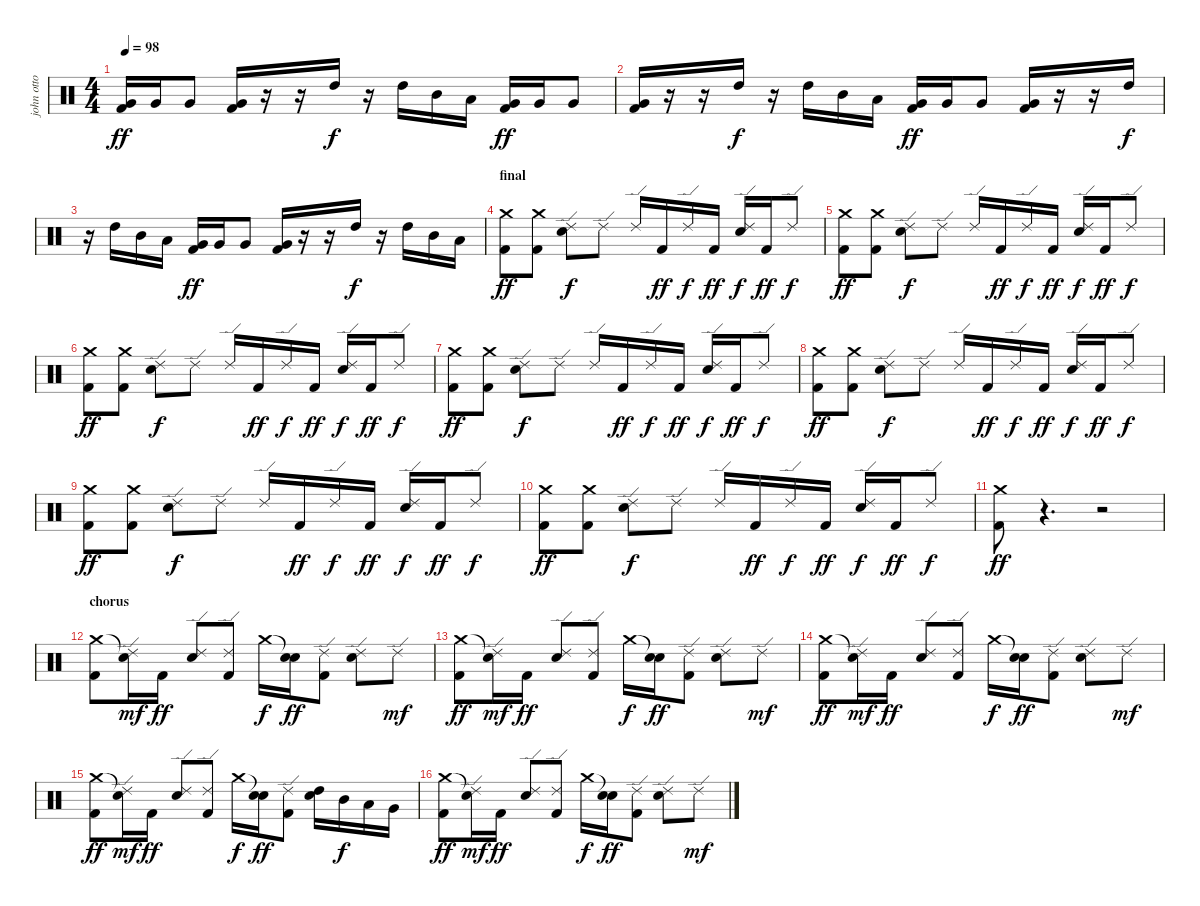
\track ("john otto" "john otto") {instrument percussion}
\staff {score}
\articulation defaults
\ts (4 4)
\tempo 98
\clef neutral
\ks c
("Very Low Tom (hit)" "Kick (hit) 2").16{dy ff volume 15} "Very Low Tom (hit)".16 "Very Low Tom (hit)".8 ("Very Low Tom (hit)" "Kick (hit) 2").16 r.16 r.16 "High Tom (hit)".16{dy f} r.16 "High Tom (hit)".16 "Mid Tom (hit)".16 "Low Tom (hit)".16 ("Very Low Tom (hit)" "Kick (hit) 2").16{dy ff} "Very Low Tom (hit)".16 "Very Low Tom (hit)".8 |
("Very Low Tom (hit)" "Kick (hit) 2").16 r.16 r.16 "High Tom (hit)".16{dy f} r.16 "High Tom (hit)".16 "Mid Tom (hit)".16 "Low Tom (hit)".16 ("Very Low Tom (hit)" "Kick (hit) 2").16{dy ff} "Very Low Tom (hit)".16 "Very Low Tom (hit)".8 ("Very Low Tom (hit)" "Kick (hit) 2").16 r.16 r.16 "High Tom (hit)".16{dy f} |
r.16 "High Tom (hit)".16 "Mid Tom (hit)".16 "Low Tom (hit)".16 ("Very Low Tom (hit)" "Kick (hit) 2").16{dy ff} "Very Low Tom (hit)".16 "Very Low Tom (hit)".8 ("Very Low Tom (hit)" "Kick (hit) 2").16 r.16 r.16 "High Tom (hit)".16{dy f} r.16 "High Tom (hit)".16 "Mid Tom (hit)".16 "Low Tom (hit)".16 |
\section ("" "final")
("Crash medium (hit)" "Kick (hit) 2").8{dy ff} ("Crash medium (hit)" "Kick (hit) 2").8 ("Ride (edge) 2" "Snare (hit) 2").8{dy f} "Ride (edge) 2".8 "Ride (edge) 2".16 "Kick (hit) 2".16{dy ff} "Ride (edge) 2".16{dy f} "Kick (hit) 2".16{dy ff} ("Ride (edge) 2" "Snare (hit) 2").16{dy f} "Kick (hit) 2".16{dy ff} "Ride (edge) 2".8{dy f} |
("Crash medium (hit)" "Kick (hit) 2").8{dy ff} ("Crash medium (hit)" "Kick (hit) 2").8 ("Ride (edge) 2" "Snare (hit) 2").8{dy f} "Ride (edge) 2".8 "Ride (edge) 2".16 "Kick (hit) 2".16{dy ff} "Ride (edge) 2".16{dy f} "Kick (hit) 2".16{dy ff} ("Ride (edge) 2" "Snare (hit) 2").16{dy f} "Kick (hit) 2".16{dy ff} "Ride (edge) 2".8{dy f} |
("Crash medium (hit)" "Kick (hit) 2").8{dy ff} ("Crash medium (hit)" "Kick (hit) 2").8 ("Ride (edge) 2" "Snare (hit) 2").8{dy f} "Ride (edge) 2".8 "Ride (edge) 2".16 "Kick (hit) 2".16{dy ff} "Ride (edge) 2".16{dy f} "Kick (hit) 2".16{dy ff} ("Ride (edge) 2" "Snare (hit) 2").16{dy f} "Kick (hit) 2".16{dy ff} "Ride (edge) 2".8{dy f} |
("Crash medium (hit)" "Kick (hit) 2").8{dy ff} ("Crash medium (hit)" "Kick (hit) 2").8 ("Ride (edge) 2" "Snare (hit) 2").8{dy f} "Ride (edge) 2".8 "Ride (edge) 2".16 "Kick (hit) 2".16{dy ff} "Ride (edge) 2".16{dy f} "Kick (hit) 2".16{dy ff} ("Ride (edge) 2" "Snare (hit) 2").16{dy f} "Kick (hit) 2".16{dy ff} "Ride (edge) 2".8{dy f} |
("Crash medium (hit)" "Kick (hit) 2").8{dy ff} ("Crash medium (hit)" "Kick (hit) 2").8 ("Ride (edge) 2" "Snare (hit) 2").8{dy f} "Ride (edge) 2".8 "Ride (edge) 2".16 "Kick (hit) 2".16{dy ff} "Ride (edge) 2".16{dy f} "Kick (hit) 2".16{dy ff} ("Ride (edge) 2" "Snare (hit) 2").16{dy f} "Kick (hit) 2".16{dy ff} "Ride (edge) 2".8{dy f} |
("Crash medium (hit)" "Kick (hit) 2").8{dy ff} ("Crash medium (hit)" "Kick (hit) 2").8 ("Ride (edge) 2" "Snare (hit) 2").8{dy f} "Ride (edge) 2".8 "Ride (edge) 2".16 "Kick (hit) 2".16{dy ff} "Ride (edge) 2".16{dy f} "Kick (hit) 2".16{dy ff} ("Ride (edge) 2" "Snare (hit) 2").16{dy f} "Kick (hit) 2".16{dy ff} "Ride (edge) 2".8{dy f} |
("Crash medium (hit)" "Kick (hit) 2").8{dy ff} ("Crash medium (hit)" "Kick (hit) 2").8 ("Ride (edge) 2" "Snare (hit) 2").8{dy f} "Ride (edge) 2".8 "Ride (edge) 2".16 "Kick (hit) 2".16{dy ff} "Ride (edge) 2".16{dy f} "Kick (hit) 2".16{dy ff} ("Ride (edge) 2" "Snare (hit) 2").16{dy f} "Kick (hit) 2".16{dy ff} "Ride (edge) 2".8{dy f} |
("Crash medium (hit)" "Kick (hit) 2").8{dy ff} r.4{d} r.2 |
\section ("" "chorus")
("Crash medium (hit)" "Kick (hit) 2").8 ("Snare (hit)"{t} "Ride (edge) 2").16{dy mf} "Kick (hit) 2".16{dy ff} ("Ride (edge) 2" "Snare (hit) 2").8 ("Ride (edge) 2" "Kick (hit) 2").8 "Crash medium (hit)".16{dy f} ("Snare (hit)"{t} "Snare (hit) 2").16{dy ff} ("Ride (edge) 2" "Kick (hit) 2").8 ("Ride (edge) 2" "Snare (hit) 2").8 "Ride (edge) 2".8{dy mf} |
("Crash medium (hit)" "Kick (hit) 2").8{dy ff} ("Snare (hit)"{t} "Ride (edge) 2").16{dy mf} "Kick (hit) 2".16{dy ff} ("Ride (edge) 2" "Snare (hit) 2").8 ("Ride (edge) 2" "Kick (hit) 2").8 "Crash medium (hit)".16{dy f} ("Snare (hit)"{t} "Snare (hit) 2").16{dy ff} ("Ride (edge) 2" "Kick (hit) 2").8 ("Ride (edge) 2" "Snare (hit) 2").8 "Ride (edge) 2".8{dy mf} |
("Crash medium (hit)" "Kick (hit) 2").8{dy ff} ("Snare (hit)"{t} "Ride (edge) 2").16{dy mf} "Kick (hit) 2".16{dy ff} ("Ride (edge) 2" "Snare (hit) 2").8 ("Ride (edge) 2" "Kick (hit) 2").8 "Crash medium (hit)".16{dy f} ("Snare (hit)"{t} "Snare (hit) 2").16{dy ff} ("Ride (edge) 2" "Kick (hit) 2").8 ("Ride (edge) 2" "Snare (hit) 2").8 "Ride (edge) 2".8{dy mf} |
("Crash medium (hit)" "Kick (hit) 2").8{dy ff} ("Snare (hit)"{t} "Ride (edge) 2").16{dy mf} "Kick (hit) 2".16{dy ff} ("Ride (edge) 2" "Snare (hit) 2").8 ("Ride (edge) 2" "Kick (hit) 2").8 "Crash medium (hit)".16{dy f} ("Snare (hit)"{t} "Snare (hit) 2").16{dy ff} ("Ride (edge) 2" "Kick (hit) 2").8 ("High Tom (hit)" "Snare (hit) 2").16 "Mid Tom (hit)".16{dy f} "Low Tom (hit)".16 "Very Low Tom (hit)".16 |
("Crash medium (hit)" "Kick (hit) 2").8{dy ff} ("Snare (hit)"{t} "Ride (edge) 2").16{dy mf} "Kick (hit) 2".16{dy ff} ("Ride (edge) 2" "Snare (hit) 2").8 ("Ride (edge) 2" "Kick (hit) 2").8 "Crash medium (hit)".16{dy f} ("Snare (hit)"{t} "Snare (hit) 2").16{dy ff} ("Ride (edge) 2" "Kick (hit) 2").8 ("Ride (edge) 2" "Snare (hit) 2").8 "Ride (edge) 2".8{dy mf}
